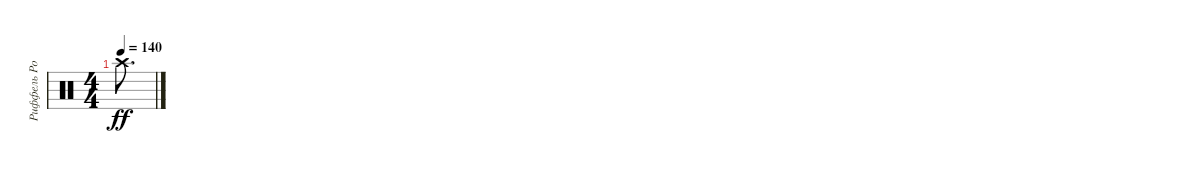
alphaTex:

\track ("Риффель Роман(главные)" "Риффель Ро") {instrument percussion}
\staff {score}
\articulation defaults
\ts (4 4)
\tempo 140
\clef neutral
\ks c "Crash high (hit)".8{d dy ff}
